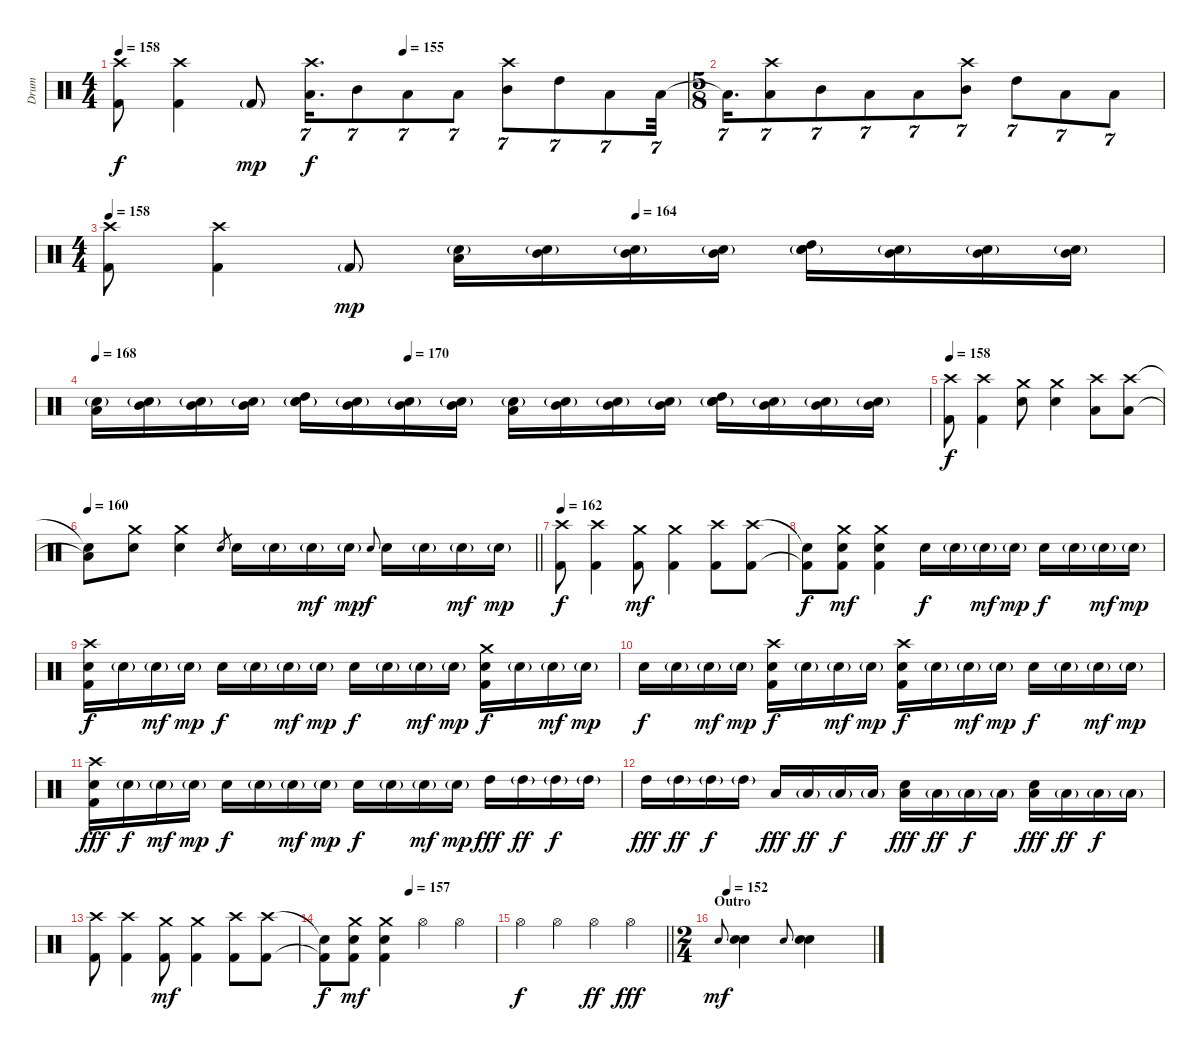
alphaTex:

\track ("Drum" "Drum") {instrument percussion}
\staff {score}
\articulation defaults
\ts (4 4)
\tempo 158
\tempo (155 0.5)
\clef neutral
\ks c
("Crash high (hit)" "Kick (hit) 2").8{dy f} ("Crash high (hit)" "Kick (hit) 2").4 "Kick (hit) 2"{g}.8{dy mp} ("Crash high (hit)" "Low Tom (hit)").16{d tu (7 4) dy f} "Mid Tom (hit)".8{tu (7 4)} "Low Tom (hit)".8{tu (7 4)} "Low Tom (hit)".8{tu (7 4)} ("Crash high (hit)" "Mid Tom (hit)").8{tu (7 4)} "High Tom (hit)".8{tu (7 4)} "Low Tom (hit)".8{tu (7 4)} "Low Tom (hit)".32{tu (7 4)} |
\ts (5 8)
"Low Tom (hit)"{t}.16{d tu (7 4)} ("Crash high (hit)" "Low Tom (hit)").8{tu (7 4)} "Mid Tom (hit)".8{tu (7 4)} "Low Tom (hit)".8{tu (7 4)} "Low Tom (hit)".8{tu (7 4)} ("Crash high (hit)" "Mid Tom (hit)").8{tu (7 4)} "High Tom (hit)".8{tu (7 4)} "Low Tom (hit)".8{tu (7 4)} "Low Tom (hit)".8{tu (7 4)} |
\ts (4 4)
\tempo 158
\tempo (164 0.5)
("Crash high (hit)" "Kick (hit) 2").8 ("Crash high (hit)" "Kick (hit) 2").4 "Kick (hit) 2"{g}.8{dy mp} ("Snare (hit) 2"{g} "Low Tom (hit)").16 ("Snare (hit) 2"{g} "Mid Tom (hit)").16 ("Snare (hit) 2"{g} "Mid Tom (hit)").16 ("Snare (hit) 2"{g} "Mid Tom (hit)").16 ("Electric Snare (hit)"{g} "Snare (hit) 2"{g} "High Tom (hit)").16 ("Snare (hit) 2"{g} "Mid Tom (hit)").16 ("Snare (hit) 2"{g} "Mid Tom (hit)").16 ("Snare (hit) 2"{g} "Mid Tom (hit)").16 |
\tempo 168
\tempo (170 0.375)
("Snare (hit) 2"{g} "Low Tom (hit)").16 ("Snare (hit) 2"{g} "Mid Tom (hit)").16 ("Snare (hit) 2"{g} "Mid Tom (hit)").16 ("Snare (hit) 2"{g} "Mid Tom (hit)").16 ("Electric Snare (hit)"{g} "Snare (hit) 2"{g} "High Tom (hit)").16 ("Snare (hit) 2"{g} "Mid Tom (hit)").16 ("Snare (hit) 2"{g} "Mid Tom (hit)").16 ("Snare (hit) 2"{g} "Mid Tom (hit)").16 ("Snare (hit) 2"{g} "Low Tom (hit)").16 ("Snare (hit) 2"{g} "Mid Tom (hit)").16 ("Snare (hit) 2"{g} "Mid Tom (hit)").16 ("Snare (hit) 2"{g} "Mid Tom (hit)").16 ("Electric Snare (hit)"{g} "Snare (hit) 2"{g} "High Tom (hit)").16 ("Snare (hit) 2"{g} "Mid Tom (hit)").16 ("Snare (hit) 2"{g} "Mid Tom (hit)").16 ("Snare (hit) 2"{g} "Mid Tom (hit)").16 |
\tempo 158
("Crash high (hit)" "Kick (hit) 2").8{dy f} ("Crash high (hit)" "Kick (hit) 2").4 ("Crash medium (hit)" "Snare (hit) 2").8 ("Crash medium (hit)" "Snare (hit) 2").4 ("Crash high (hit)" "Low Tom (hit)").8 ("Crash high (hit)" "Low Tom (hit)").8 |
\tempo 160
\barLineRight lightlight
("Snare (hit)"{t} "Low Tom (hit)"{t}).8 ("Crash medium (hit)" "Snare (hit) 2").8 ("Crash medium (hit)" "Snare (hit) 2").4 "Electric Snare (hit)".8{gr} "Snare (hit) 2".16 "Snare (hit) 2"{g}.16 "Snare (hit) 2"{g}.16{dy mf} "Snare (hit) 2"{g}.16{dy mp} "Electric Snare (hit)".8{gr onbeat dy f} "Snare (hit) 2".16 "Snare (hit) 2"{g}.16 "Snare (hit) 2"{g}.16{dy mf} "Snare (hit) 2"{g}.16{dy mp} |
\section ("" "")
\tempo 162
("Crash high (hit)" "Kick (hit) 2").8{dy f} ("Crash high (hit)" "Kick (hit) 2").4 ("Crash medium (hit)" "Kick (hit) 2").8{dy mf} ("Crash medium (hit)" "Kick (hit) 2").4 ("Crash high (hit)" "Kick (hit) 2").8 ("Crash high (hit)" "Kick (hit) 2").8 |
("Snare (hit)"{t} "Kick (hit) 2"{t}).8{dy f} ("Crash medium (hit)" "Snare (hit) 2" "Kick (hit) 2").8{dy mf} ("Crash medium (hit)" "Snare (hit) 2" "Kick (hit) 2").4 "Snare (hit) 2".16{dy f} "Snare (hit) 2"{g}.16 "Snare (hit) 2"{g}.16{dy mf} "Snare (hit) 2"{g}.16{dy mp} "Snare (hit) 2".16{dy f} "Snare (hit) 2"{g}.16 "Snare (hit) 2"{g}.16{dy mf} "Snare (hit) 2"{g}.16{dy mp} |
("Crash high (hit)" "Snare (hit) 2" "Kick (hit) 2").16{dy f} "Snare (hit) 2"{g}.16 "Snare (hit) 2"{g}.16{dy mf} "Snare (hit) 2"{g}.16{dy mp} "Snare (hit) 2".16{dy f} "Snare (hit) 2"{g}.16 "Snare (hit) 2"{g}.16{dy mf} "Snare (hit) 2"{g}.16{dy mp} "Snare (hit) 2".16{dy f} "Snare (hit) 2"{g}.16 "Snare (hit) 2"{g}.16{dy mf} "Snare (hit) 2"{g}.16{dy mp} ("Crash medium (hit)" "Snare (hit) 2" "Kick (hit) 2").16{dy f} "Snare (hit) 2"{g}.16 "Snare (hit) 2"{g}.16{dy mf} "Snare (hit) 2"{g}.16{dy mp} |
"Snare (hit) 2".16{dy f} "Snare (hit) 2"{g}.16 "Snare (hit) 2"{g}.16{dy mf} "Snare (hit) 2"{g}.16{dy mp} ("Crash high (hit)" "Snare (hit) 2" "Kick (hit) 2").16{dy f} "Snare (hit) 2"{g}.16 "Snare (hit) 2"{g}.16{dy mf} "Snare (hit) 2"{g}.16{dy mp} ("Crash high (hit)" "Snare (hit) 2" "Kick (hit) 2").16{dy f} "Snare (hit) 2"{g}.16 "Snare (hit) 2"{g}.16{dy mf} "Snare (hit) 2"{g}.16{dy mp} "Snare (hit) 2".16{dy f} "Snare (hit) 2"{g}.16 "Snare (hit) 2"{g}.16{dy mf} "Snare (hit) 2"{g}.16{dy mp} |
("Crash high (hit)" "Snare (hit) 2" "Kick (hit) 2").16{dy fff} "Snare (hit) 2"{g}.16{dy f} "Snare (hit) 2"{g}.16{dy mf} "Snare (hit) 2"{g}.16{dy mp} "Snare (hit) 2".16{dy f} "Snare (hit) 2"{g}.16 "Snare (hit) 2"{g}.16{dy mf} "Snare (hit) 2"{g}.16{dy mp} "Snare (hit) 2".16{dy f} "Snare (hit) 2"{g}.16 "Snare (hit) 2"{g}.16{dy mf} "Snare (hit) 2"{g}.16{dy mp} "High Tom (hit)".16{dy fff} "High Tom (hit)"{g}.16{dy ff} "High Tom (hit)"{g}.16{dy f} "High Tom (hit)"{g}.16 |
"High Tom (hit)".16{dy fff} "High Tom (hit)"{g}.16{dy ff} "High Tom (hit)"{g}.16{dy f} "High Tom (hit)"{g}.16 "Low Tom (hit)".16{dy fff} "Low Tom (hit)"{g}.16{dy ff} "Low Tom (hit)"{g}.16{dy f} "Low Tom (hit)"{g}.16 ("Electric Snare (hit)" "Low Tom (hit)").16{dy fff} "Low Tom (hit)"{g}.16{dy ff} "Low Tom (hit)"{g}.16{dy f} "Low Tom (hit)"{g}.16 ("Electric Snare (hit)" "Low Tom (hit)").16{dy fff} "Low Tom (hit)"{g}.16{dy ff} "Low Tom (hit)"{g}.16{dy f} "Low Tom (hit)"{g}.16 |
("Crash high (hit)" "Kick (hit) 2").8 ("Crash high (hit)" "Kick (hit) 2").4 ("Crash medium (hit)" "Kick (hit) 2").8{dy mf} ("Crash medium (hit)" "Kick (hit) 2").4 ("Crash high (hit)" "Kick (hit) 2").8 ("Crash high (hit)" "Kick (hit) 2").8 |
\tempo (157 0.5)
("Snare (hit)"{t} "Kick (hit) 2"{t}).8{dy f} ("Crash medium (hit)" "Snare (hit) 2" "Kick (hit) 2").8{dy mf} ("Crash medium (hit)" "Snare (hit) 2" "Kick (hit) 2").4 "Hi-Hat (open)".4 "Hi-Hat (open)".4 |
\barLineRight lightlight "Hi-Hat (open)".4{dy f} "Hi-Hat (open)".4 "Hi-Hat (open)".4{dy ff} "Hi-Hat (open)".4{dy fff}
|
\ts (2 4)
\section ("" "Outro")
\tempo (152 0.0625)
"Snare (hit) 2".8{gr onbeat dy mf} ("Snare (hit) 2" "Electric Snare (hit)").4 "Snare (hit) 2".8{gr onbeat} ("Snare (hit) 2" "Electric Snare (hit)").4
